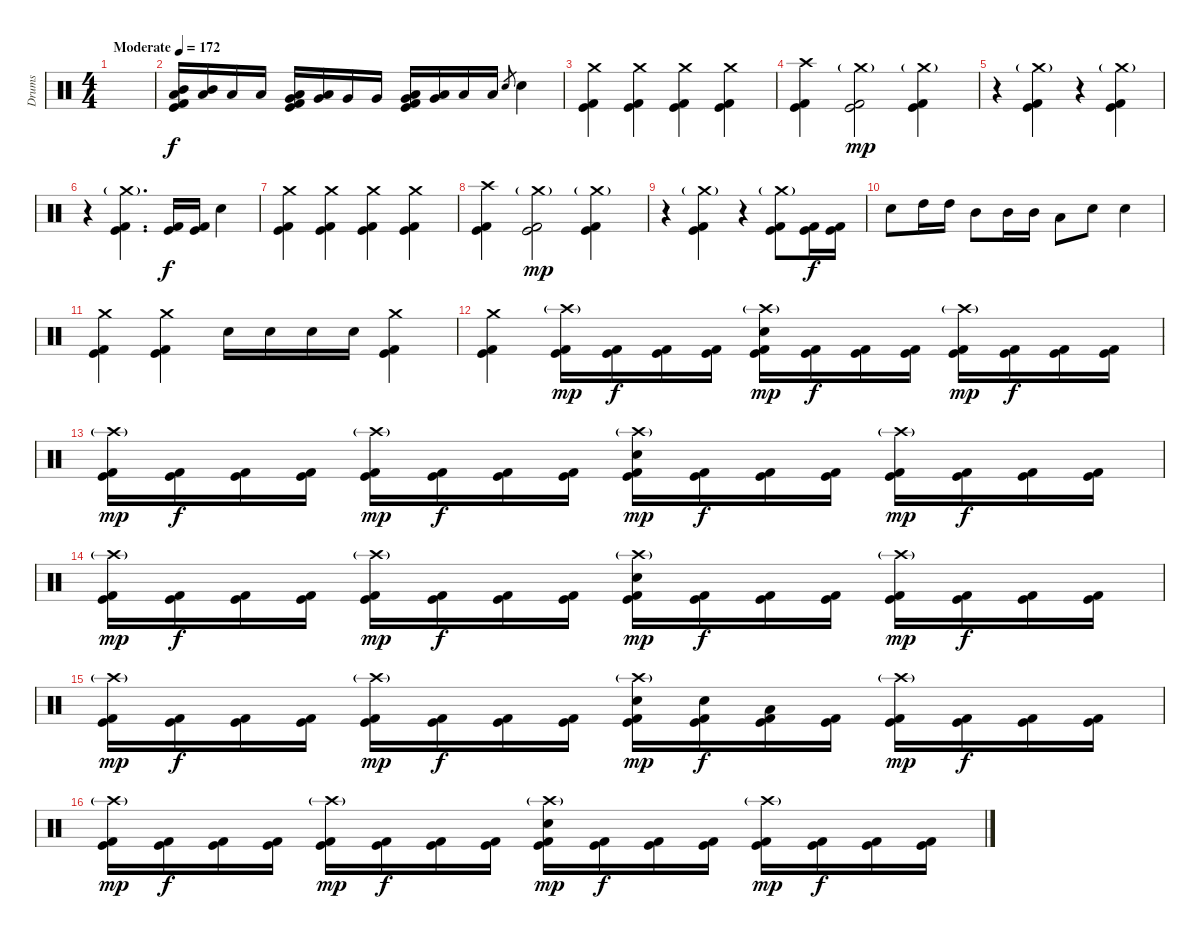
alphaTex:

\track ("Drums" "Drums") {instrument percussion}
\staff {score}
\articulation defaults
\ts (4 4)
\tempo (172 "Moderate")
\clef neutral
\ks c
|
("Mid Tom (hit)" "Low Tom (hit)" "Kick (hit)" "Kick (hit) 2").16 ("Mid Tom (hit)" "Low Tom (hit)").16 "Low Tom (hit)".16 "Low Tom (hit)".16 ("Low Tom (hit)" "Very Low Tom (hit)" "Kick (hit)" "Kick (hit) 2").16 ("Low Tom (hit)" "Very Low Tom (hit)").16 "Very Low Tom (hit)".16 "Very Low Tom (hit)".16 ("Very Low Tom (hit)" "Low Floor Tom (hit)" "Kick (hit)" "Kick (hit) 2").16 ("Very Low Tom (hit)" "Low Floor Tom (hit)").16 "Low Floor Tom (hit)".16 "Low Floor Tom (hit)".16 "Electric Snare (hit)".8{gr} "Electric Snare (hit)".4 |
("Crash medium (hit)" "Kick (hit)" "Kick (hit) 2").4 ("Crash medium (hit)" "Kick (hit)" "Kick (hit) 2").4 ("Crash medium (hit)" "Kick (hit)" "Kick (hit) 2").4 ("Crash medium (hit)" "Kick (hit)" "Kick (hit) 2").4 |
("Crash high (hit)" "Kick (hit)" "Kick (hit) 2").4 ("Crash medium (hit)"{g} "Kick (hit)" "Kick (hit) 2").2{dy mp} ("Crash medium (hit)"{g} "Kick (hit)" "Kick (hit) 2").4 |
r.4 ("Crash medium (hit)"{g} "Kick (hit)" "Kick (hit) 2").4 r.4 ("Crash medium (hit)"{g} "Kick (hit)" "Kick (hit) 2").4 |
r.4 ("Crash medium (hit)"{g} "Kick (hit)" "Kick (hit) 2").4{d} ("Kick (hit)" "Kick (hit) 2").16{dy f} ("Kick (hit)" "Kick (hit) 2").16 "Electric Snare (hit)".4 |
("Crash medium (hit)" "Kick (hit)" "Kick (hit) 2").4 ("Crash medium (hit)" "Kick (hit)" "Kick (hit) 2").4 ("Crash medium (hit)" "Kick (hit)" "Kick (hit) 2").4 ("Crash medium (hit)" "Kick (hit)" "Kick (hit) 2").4 |
("Crash high (hit)" "Kick (hit)" "Kick (hit) 2").4 ("Crash medium (hit)"{g} "Kick (hit)" "Kick (hit) 2").2{dy mp} ("Crash medium (hit)"{g} "Kick (hit)" "Kick (hit) 2").4 |
r.4 ("Crash medium (hit)"{g} "Kick (hit)" "Kick (hit) 2").4 r.4 ("Crash medium (hit)"{g} "Kick (hit)" "Kick (hit) 2").8 ("Kick (hit)" "Kick (hit) 2").16{dy f} ("Kick (hit)" "Kick (hit) 2").16 |
"Electric Snare (hit)".8 "High Tom (hit)".16 "High Tom (hit)".16 "Mid Tom (hit)".8 "Mid Tom (hit)".16 "Mid Tom (hit)".16 "Low Tom (hit)".8 "Electric Snare (hit)".8 "Electric Snare (hit)".4 |
("Crash medium (hit)" "Kick (hit)" "Kick (hit) 2").4 ("Crash medium (hit)" "Kick (hit)" "Kick (hit) 2").4 "Electric Snare (hit)".16 "Electric Snare (hit)".16 "Electric Snare (hit)".16 "Electric Snare (hit)".16 ("Crash medium (hit)" "Kick (hit)" "Kick (hit) 2").4 |
("Crash medium (hit)" "Kick (hit)" "Kick (hit) 2").4 ("Crash high (hit)"{g} "Kick (hit)" "Kick (hit) 2").16{dy mp} ("Kick (hit)" "Kick (hit) 2").16{dy f} ("Kick (hit)" "Kick (hit) 2").16 ("Kick (hit)" "Kick (hit) 2").16 ("Crash high (hit)"{g} "Electric Snare (hit)" "Kick (hit)" "Kick (hit) 2").16{dy mp} ("Kick (hit)" "Kick (hit) 2").16{dy f} ("Kick (hit)" "Kick (hit) 2").16 ("Kick (hit)" "Kick (hit) 2").16 ("Crash high (hit)"{g} "Kick (hit)" "Kick (hit) 2").16{dy mp} ("Kick (hit)" "Kick (hit) 2").16{dy f} ("Kick (hit)" "Kick (hit) 2").16 ("Kick (hit)" "Kick (hit) 2").16 |
("Crash high (hit)"{g} "Kick (hit)" "Kick (hit) 2").16{dy mp} ("Kick (hit)" "Kick (hit) 2").16{dy f} ("Kick (hit)" "Kick (hit) 2").16 ("Kick (hit)" "Kick (hit) 2").16 ("Crash high (hit)"{g} "Kick (hit)" "Kick (hit) 2").16{dy mp} ("Kick (hit)" "Kick (hit) 2").16{dy f} ("Kick (hit)" "Kick (hit) 2").16 ("Kick (hit)" "Kick (hit) 2").16 ("Crash high (hit)"{g} "Electric Snare (hit)" "Kick (hit)" "Kick (hit) 2").16{dy mp} ("Kick (hit)" "Kick (hit) 2").16{dy f} ("Kick (hit)" "Kick (hit) 2").16 ("Kick (hit)" "Kick (hit) 2").16 ("Crash high (hit)"{g} "Kick (hit)" "Kick (hit) 2").16{dy mp} ("Kick (hit)" "Kick (hit) 2").16{dy f} ("Kick (hit)" "Kick (hit) 2").16 ("Kick (hit)" "Kick (hit) 2").16 |
("Crash high (hit)"{g} "Kick (hit)" "Kick (hit) 2").16{dy mp} ("Kick (hit)" "Kick (hit) 2").16{dy f} ("Kick (hit)" "Kick (hit) 2").16 ("Kick (hit)" "Kick (hit) 2").16 ("Crash high (hit)"{g} "Kick (hit)" "Kick (hit) 2").16{dy mp} ("Kick (hit)" "Kick (hit) 2").16{dy f} ("Kick (hit)" "Kick (hit) 2").16 ("Kick (hit)" "Kick (hit) 2").16 ("Crash high (hit)"{g} "Electric Snare (hit)" "Kick (hit)" "Kick (hit) 2").16{dy mp} ("Kick (hit)" "Kick (hit) 2").16{dy f} ("Kick (hit)" "Kick (hit) 2").16 ("Kick (hit)" "Kick (hit) 2").16 ("Crash high (hit)"{g} "Kick (hit)" "Kick (hit) 2").16{dy mp} ("Kick (hit)" "Kick (hit) 2").16{dy f} ("Kick (hit)" "Kick (hit) 2").16 ("Kick (hit)" "Kick (hit) 2").16 |
("Crash high (hit)"{g} "Kick (hit)" "Kick (hit) 2").16{dy mp} ("Kick (hit)" "Kick (hit) 2").16{dy f} ("Kick (hit)" "Kick (hit) 2").16 ("Kick (hit)" "Kick (hit) 2").16 ("Crash high (hit)"{g} "Kick (hit)" "Kick (hit) 2").16{dy mp} ("Kick (hit)" "Kick (hit) 2").16{dy f} ("Kick (hit)" "Kick (hit) 2").16 ("Kick (hit)" "Kick (hit) 2").16 ("Crash high (hit)"{g} "Electric Snare (hit)" "Kick (hit)" "Kick (hit) 2").16{dy mp} ("Electric Snare (hit)" "Kick (hit)" "Kick (hit) 2").16{dy f} ("Low Tom (hit)" "Kick (hit)" "Kick (hit) 2").16 ("Kick (hit)" "Kick (hit) 2").16 ("Crash high (hit)"{g} "Kick (hit)" "Kick (hit) 2").16{dy mp} ("Kick (hit)" "Kick (hit) 2").16{dy f} ("Kick (hit)" "Kick (hit) 2").16 ("Kick (hit)" "Kick (hit) 2").16 |
("Crash high (hit)"{g} "Kick (hit)" "Kick (hit) 2").16{dy mp} ("Kick (hit)" "Kick (hit) 2").16{dy f} ("Kick (hit)" "Kick (hit) 2").16 ("Kick (hit)" "Kick (hit) 2").16 ("Crash high (hit)"{g} "Kick (hit)" "Kick (hit) 2").16{dy mp} ("Kick (hit)" "Kick (hit) 2").16{dy f} ("Kick (hit)" "Kick (hit) 2").16 ("Kick (hit)" "Kick (hit) 2").16 ("Crash high (hit)"{g} "Electric Snare (hit)" "Kick (hit)" "Kick (hit) 2").16{dy mp} ("Kick (hit)" "Kick (hit) 2").16{dy f} ("Kick (hit)" "Kick (hit) 2").16 ("Kick (hit)" "Kick (hit) 2").16 ("Crash high (hit)"{g} "Kick (hit)" "Kick (hit) 2").16{dy mp} ("Kick (hit)" "Kick (hit) 2").16{dy f} ("Kick (hit)" "Kick (hit) 2").16 ("Kick (hit)" "Kick (hit) 2").16
